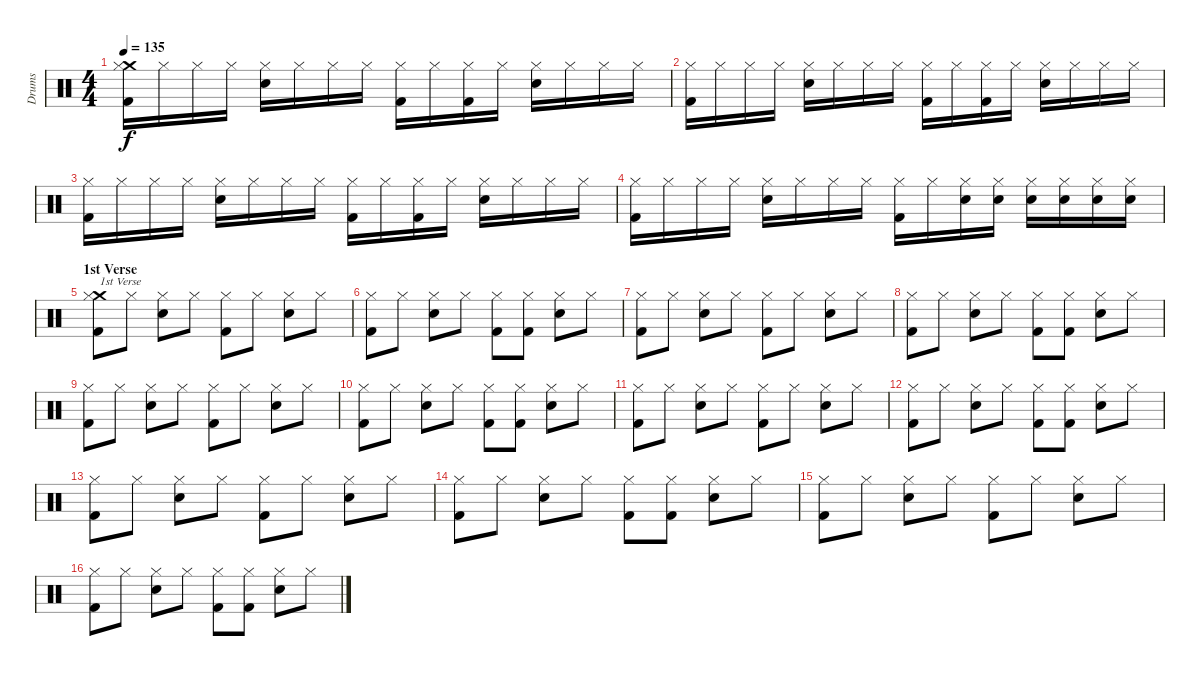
\track ("Drums" "Drums") {instrument percussion}
\staff {score}
\articulation defaults
\ts (4 4)
\tempo 135
\clef neutral
\ks c
("Crash medium (hit)" "Hi-Hat (closed)" "Kick (hit) 2").16{dy f} "Hi-Hat (closed)".16 "Hi-Hat (closed)".16 "Hi-Hat (closed)".16 ("Hi-Hat (closed)" "Snare (hit) 2").16 "Hi-Hat (closed)".16 "Hi-Hat (closed)".16 "Hi-Hat (closed)".16 ("Hi-Hat (closed)" "Kick (hit) 2").16 "Hi-Hat (closed)".16 ("Hi-Hat (closed)" "Kick (hit) 2").16 "Hi-Hat (closed)".16 ("Hi-Hat (closed)" "Snare (hit) 2").16 "Hi-Hat (closed)".16 "Hi-Hat (closed)".16 "Hi-Hat (closed)".16 |
("Hi-Hat (closed)" "Kick (hit) 2").16 "Hi-Hat (closed)".16 "Hi-Hat (closed)".16 "Hi-Hat (closed)".16 ("Hi-Hat (closed)" "Snare (hit) 2").16 "Hi-Hat (closed)".16 "Hi-Hat (closed)".16 "Hi-Hat (closed)".16 ("Hi-Hat (closed)" "Kick (hit) 2").16 "Hi-Hat (closed)".16 ("Hi-Hat (closed)" "Kick (hit) 2").16 "Hi-Hat (closed)".16 ("Hi-Hat (closed)" "Snare (hit) 2").16 "Hi-Hat (closed)".16 "Hi-Hat (closed)".16 "Hi-Hat (closed)".16 |
("Hi-Hat (closed)" "Kick (hit) 2").16 "Hi-Hat (closed)".16 "Hi-Hat (closed)".16 "Hi-Hat (closed)".16 ("Hi-Hat (closed)" "Snare (hit) 2").16 "Hi-Hat (closed)".16 "Hi-Hat (closed)".16 "Hi-Hat (closed)".16 ("Hi-Hat (closed)" "Kick (hit) 2").16 "Hi-Hat (closed)".16 ("Hi-Hat (closed)" "Kick (hit) 2").16 "Hi-Hat (closed)".16 ("Hi-Hat (closed)" "Snare (hit) 2").16 "Hi-Hat (closed)".16 "Hi-Hat (closed)".16 "Hi-Hat (closed)".16 |
("Hi-Hat (closed)" "Kick (hit) 2").16 "Hi-Hat (closed)".16 "Hi-Hat (closed)".16 "Hi-Hat (closed)".16 ("Hi-Hat (closed)" "Snare (hit) 2").16 "Hi-Hat (closed)".16 "Hi-Hat (closed)".16 "Hi-Hat (closed)".16 ("Hi-Hat (closed)" "Kick (hit) 2").16 "Hi-Hat (closed)".16 ("Hi-Hat (closed)" "Snare (hit) 2").16 ("Hi-Hat (closed)" "Snare (hit) 2").16 ("Hi-Hat (closed)" "Snare (hit) 2").16 ("Hi-Hat (closed)" "Snare (hit) 2").16 ("Hi-Hat (closed)" "Snare (hit) 2").16 ("Hi-Hat (closed)" "Snare (hit) 2").16 |
\section ("" "1st Verse")
("Crash medium (hit)" "Hi-Hat (closed)" "Kick (hit) 2").8{txt "1st Verse"} "Hi-Hat (closed)".8 ("Hi-Hat (closed)" "Snare (hit) 2").8 "Hi-Hat (closed)".8 ("Hi-Hat (closed)" "Kick (hit) 2").8 "Hi-Hat (closed)".8 ("Hi-Hat (closed)" "Snare (hit) 2").8 "Hi-Hat (closed)".8 |
("Hi-Hat (closed)" "Kick (hit) 2").8 "Hi-Hat (closed)".8 ("Hi-Hat (closed)" "Snare (hit) 2").8 "Hi-Hat (closed)".8 ("Hi-Hat (closed)" "Kick (hit) 2").8 ("Hi-Hat (closed)" "Kick (hit) 2").8 ("Hi-Hat (closed)" "Snare (hit) 2").8 "Hi-Hat (closed)".8 |
("Hi-Hat (closed)" "Kick (hit) 2").8 "Hi-Hat (closed)".8 ("Hi-Hat (closed)" "Snare (hit) 2").8 "Hi-Hat (closed)".8 ("Hi-Hat (closed)" "Kick (hit) 2").8 "Hi-Hat (closed)".8 ("Hi-Hat (closed)" "Snare (hit) 2").8 "Hi-Hat (closed)".8 |
("Hi-Hat (closed)" "Kick (hit) 2").8 "Hi-Hat (closed)".8 ("Hi-Hat (closed)" "Snare (hit) 2").8 "Hi-Hat (closed)".8 ("Hi-Hat (closed)" "Kick (hit) 2").8 ("Hi-Hat (closed)" "Kick (hit) 2").8 ("Hi-Hat (closed)" "Snare (hit) 2").8 "Hi-Hat (closed)".8 |
("Hi-Hat (closed)" "Kick (hit) 2").8 "Hi-Hat (closed)".8 ("Hi-Hat (closed)" "Snare (hit) 2").8 "Hi-Hat (closed)".8 ("Hi-Hat (closed)" "Kick (hit) 2").8 "Hi-Hat (closed)".8 ("Hi-Hat (closed)" "Snare (hit) 2").8 "Hi-Hat (closed)".8 |
("Hi-Hat (closed)" "Kick (hit) 2").8 "Hi-Hat (closed)".8 ("Hi-Hat (closed)" "Snare (hit) 2").8 "Hi-Hat (closed)".8 ("Hi-Hat (closed)" "Kick (hit) 2").8 ("Hi-Hat (closed)" "Kick (hit) 2").8 ("Hi-Hat (closed)" "Snare (hit) 2").8 "Hi-Hat (closed)".8 |
("Hi-Hat (closed)" "Kick (hit) 2").8 "Hi-Hat (closed)".8 ("Hi-Hat (closed)" "Snare (hit) 2").8 "Hi-Hat (closed)".8 ("Hi-Hat (closed)" "Kick (hit) 2").8 "Hi-Hat (closed)".8 ("Hi-Hat (closed)" "Snare (hit) 2").8 "Hi-Hat (closed)".8 |
("Hi-Hat (closed)" "Kick (hit) 2").8 "Hi-Hat (closed)".8 ("Hi-Hat (closed)" "Snare (hit) 2").8 "Hi-Hat (closed)".8 ("Hi-Hat (closed)" "Kick (hit) 2").8 ("Hi-Hat (closed)" "Kick (hit) 2").8 ("Hi-Hat (closed)" "Snare (hit) 2").8 "Hi-Hat (closed)".8 |
("Hi-Hat (closed)" "Kick (hit) 2").8 "Hi-Hat (closed)".8 ("Hi-Hat (closed)" "Snare (hit) 2").8 "Hi-Hat (closed)".8 ("Hi-Hat (closed)" "Kick (hit) 2").8 "Hi-Hat (closed)".8 ("Hi-Hat (closed)" "Snare (hit) 2").8 "Hi-Hat (closed)".8 |
("Hi-Hat (closed)" "Kick (hit) 2").8 "Hi-Hat (closed)".8 ("Hi-Hat (closed)" "Snare (hit) 2").8 "Hi-Hat (closed)".8 ("Hi-Hat (closed)" "Kick (hit) 2").8 ("Hi-Hat (closed)" "Kick (hit) 2").8 ("Hi-Hat (closed)" "Snare (hit) 2").8 "Hi-Hat (closed)".8 |
("Hi-Hat (closed)" "Kick (hit) 2").8 "Hi-Hat (closed)".8 ("Hi-Hat (closed)" "Snare (hit) 2").8 "Hi-Hat (closed)".8 ("Hi-Hat (closed)" "Kick (hit) 2").8 "Hi-Hat (closed)".8 ("Hi-Hat (closed)" "Snare (hit) 2").8 "Hi-Hat (closed)".8 |
("Hi-Hat (closed)" "Kick (hit) 2").8 "Hi-Hat (closed)".8 ("Hi-Hat (closed)" "Snare (hit) 2").8 "Hi-Hat (closed)".8 ("Hi-Hat (closed)" "Kick (hit) 2").8 ("Hi-Hat (closed)" "Kick (hit) 2").8 ("Hi-Hat (closed)" "Snare (hit) 2").8 "Hi-Hat (closed)".8
